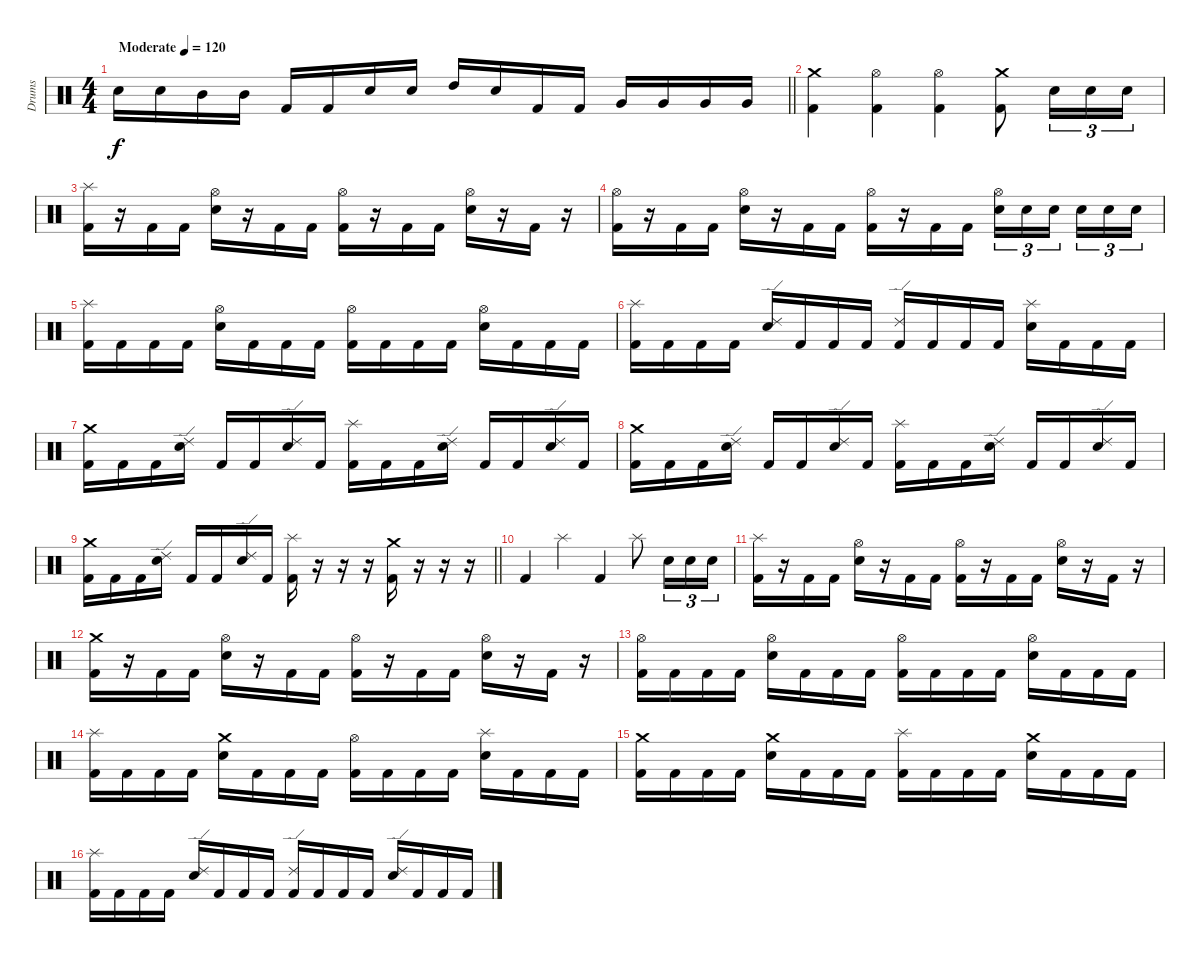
\track ("Drums" "Drums") {instrument percussion}
\staff {score}
\articulation defaults
\ts (4 4)
\tempo (120 "Moderate")
\clef neutral
\barLineRight lightlight
\ks c "Electric Snare (hit)".16{dy f} "Electric Snare (hit)".16 "Mid Tom (hit)".16 "Mid Tom (hit)".16 "Kick (hit) 2".16 "Kick (hit) 2".16 "Electric Snare (hit)".16 "Electric Snare (hit)".16 "High Tom (hit)".16 "Electric Snare (hit)".16 "Kick (hit) 2".16 "Kick (hit) 2".16 "Very Low Tom (hit)".16 "Very Low Tom (hit)".16 "Very Low Tom (hit)".16 "Very Low Tom (hit)".16
|
("Kick (hit) 2" "Crash medium (hit)").4 ("Kick (hit) 2" "Hi-Hat (open)").4 ("Kick (hit) 2" "Hi-Hat (open)").4 ("Kick (hit) 2" "Crash medium (hit)").8 "Electric Snare (hit)".16{tu (3 2)} "Electric Snare (hit)".16{tu (3 2)} "Electric Snare (hit)".16{tu (3 2)} |
("Kick (hit) 2" "Splash (hit)").16 r.16 "Kick (hit) 2".16 "Kick (hit) 2".16 ("Electric Snare (hit)" "Hi-Hat (open)").16 r.16 "Kick (hit) 2".16 "Kick (hit) 2".16 ("Kick (hit) 2" "Hi-Hat (open)").16 r.16 "Kick (hit) 2".16 "Kick (hit) 2".16 ("Electric Snare (hit)" "Hi-Hat (open)").16 r.16 "Kick (hit) 2".16 r.16 |
("Kick (hit) 2" "Hi-Hat (open)").16 r.16 "Kick (hit) 2".16 "Kick (hit) 2".16 ("Electric Snare (hit)" "Hi-Hat (open)").16 r.16 "Kick (hit) 2".16 "Kick (hit) 2".16 ("Kick (hit) 2" "Hi-Hat (open)").16 r.16 "Kick (hit) 2".16 "Kick (hit) 2".16 ("Electric Snare (hit)" "Hi-Hat (open)").16{tu (3 2)} "Electric Snare (hit)".16{tu (3 2)} "Electric Snare (hit)".16{tu (3 2) beam splitsecondary} "Electric Snare (hit)".16{tu (3 2)} "Electric Snare (hit)".16{tu (3 2)} "Electric Snare (hit)".16{tu (3 2)} |
("Kick (hit) 2" "Splash (hit)").16 "Kick (hit) 2".16 "Kick (hit) 2".16 "Kick (hit) 2".16 ("Electric Snare (hit)" "Hi-Hat (open)").16 "Kick (hit) 2".16 "Kick (hit) 2".16 "Kick (hit) 2".16 ("Kick (hit) 2" "Hi-Hat (open)").16 "Kick (hit) 2".16 "Kick (hit) 2".16 "Kick (hit) 2".16 ("Electric Snare (hit)" "Hi-Hat (open)").16 "Kick (hit) 2".16 "Kick (hit) 2".16 "Kick (hit) 2".16 |
("Kick (hit) 2" "Splash (hit)").16 "Kick (hit) 2".16 "Kick (hit) 2".16 "Kick (hit) 2".16 ("Electric Snare (hit)" "Ride (edge) 2").16 "Kick (hit) 2".16 "Kick (hit) 2".16 "Kick (hit) 2".16 ("Kick (hit) 2" "Ride (edge) 2").16 "Kick (hit) 2".16 "Kick (hit) 2".16 "Kick (hit) 2".16 ("Electric Snare (hit)" "Splash (hit)").16 "Kick (hit) 2".16 "Kick (hit) 2".16 "Kick (hit) 2".16 |
("Kick (hit) 2" "Crash medium (hit)").16 "Kick (hit) 2".16 "Kick (hit) 2".16 ("Electric Snare (hit)" "Ride (edge) 2").16 "Kick (hit) 2".16 "Kick (hit) 2".16 ("Electric Snare (hit)" "Ride (edge) 2").16 "Kick (hit) 2".16 ("Kick (hit) 2" "Splash (hit)").16 "Kick (hit) 2".16 "Kick (hit) 2".16 ("Electric Snare (hit)" "Ride (edge) 2").16 "Kick (hit) 2".16 "Kick (hit) 2".16 ("Electric Snare (hit)" "Ride (edge) 2").16 "Kick (hit) 2".16 |
("Kick (hit) 2" "Crash medium (hit)").16 "Kick (hit) 2".16 "Kick (hit) 2".16 ("Electric Snare (hit)" "Ride (edge) 2").16 "Kick (hit) 2".16 "Kick (hit) 2".16 ("Electric Snare (hit)" "Ride (edge) 2").16 "Kick (hit) 2".16 ("Kick (hit) 2" "Splash (hit)").16 "Kick (hit) 2".16 "Kick (hit) 2".16 ("Electric Snare (hit)" "Ride (edge) 2").16 "Kick (hit) 2".16 "Kick (hit) 2".16 ("Electric Snare (hit)" "Ride (edge) 2").16 "Kick (hit) 2".16 |
\barLineRight lightlight
("Kick (hit) 2" "Crash medium (hit)").16 "Kick (hit) 2".16 "Kick (hit) 2".16 ("Electric Snare (hit)" "Ride (edge) 2").16 "Kick (hit) 2".16 "Kick (hit) 2".16 ("Electric Snare (hit)" "Ride (edge) 2").16 "Kick (hit) 2".16 ("Kick (hit) 2" "Splash (hit)").16 r.16 r.16 r.16 ("Kick (hit) 2" "Crash medium (hit)").16 r.16 r.16 r.16 |
"Kick (hit) 2".4 "Splash (hit)".4 "Kick (hit) 2".4 "Splash (hit)".8 "Electric Snare (hit)".16{tu (3 2)} "Electric Snare (hit)".16{tu (3 2)} "Electric Snare (hit)".16{tu (3 2)} |
("Kick (hit) 2" "Splash (hit)").16 r.16 "Kick (hit) 2".16 "Kick (hit) 2".16 ("Electric Snare (hit)" "Hi-Hat (open)").16 r.16 "Kick (hit) 2".16 "Kick (hit) 2".16 ("Kick (hit) 2" "Hi-Hat (open)").16 r.16 "Kick (hit) 2".16 "Kick (hit) 2".16 ("Electric Snare (hit)" "Hi-Hat (open)").16 r.16 "Kick (hit) 2".16 r.16 |
("Kick (hit) 2" "Crash medium (hit)").16 r.16 "Kick (hit) 2".16 "Kick (hit) 2".16 ("Electric Snare (hit)" "Hi-Hat (open)").16 r.16 "Kick (hit) 2".16 "Kick (hit) 2".16 ("Kick (hit) 2" "Hi-Hat (open)").16 r.16 "Kick (hit) 2".16 "Kick (hit) 2".16 ("Electric Snare (hit)" "Hi-Hat (open)").16 r.16 "Kick (hit) 2".16 r.16 |
("Kick (hit) 2" "Hi-Hat (open)").16 "Kick (hit) 2".16 "Kick (hit) 2".16 "Kick (hit) 2".16 ("Electric Snare (hit)" "Hi-Hat (open)").16 "Kick (hit) 2".16 "Kick (hit) 2".16 "Kick (hit) 2".16 ("Kick (hit) 2" "Hi-Hat (open)").16 "Kick (hit) 2".16 "Kick (hit) 2".16 "Kick (hit) 2".16 ("Electric Snare (hit)" "Hi-Hat (open)").16 "Kick (hit) 2".16 "Kick (hit) 2".16 "Kick (hit) 2".16 |
("Kick (hit) 2" "Splash (hit)").16 "Kick (hit) 2".16 "Kick (hit) 2".16 "Kick (hit) 2".16 ("Electric Snare (hit)" "Crash medium (hit)").16 "Kick (hit) 2".16 "Kick (hit) 2".16 "Kick (hit) 2".16 ("Kick (hit) 2" "Hi-Hat (open)").16 "Kick (hit) 2".16 "Kick (hit) 2".16 "Kick (hit) 2".16 ("Electric Snare (hit)" "Splash (hit)").16 "Kick (hit) 2".16 "Kick (hit) 2".16 "Kick (hit) 2".16 |
("Kick (hit) 2" "Crash medium (hit)").16 "Kick (hit) 2".16 "Kick (hit) 2".16 "Kick (hit) 2".16 ("Electric Snare (hit)" "Crash medium (hit)").16 "Kick (hit) 2".16 "Kick (hit) 2".16 "Kick (hit) 2".16 ("Kick (hit) 2" "Splash (hit)").16 "Kick (hit) 2".16 "Kick (hit) 2".16 "Kick (hit) 2".16 ("Electric Snare (hit)" "Crash medium (hit)").16 "Kick (hit) 2".16 "Kick (hit) 2".16 "Kick (hit) 2".16 |
("Kick (hit) 2" "Splash (hit)").16 "Kick (hit) 2".16 "Kick (hit) 2".16 "Kick (hit) 2".16 ("Electric Snare (hit)" "Ride (edge) 2").16 "Kick (hit) 2".16 "Kick (hit) 2".16 "Kick (hit) 2".16 ("Kick (hit) 2" "Ride (edge) 2").16 "Kick (hit) 2".16 "Kick (hit) 2".16 "Kick (hit) 2".16 ("Electric Snare (hit)" "Ride (edge) 2").16 "Kick (hit) 2".16 "Kick (hit) 2".16 "Kick (hit) 2".16
